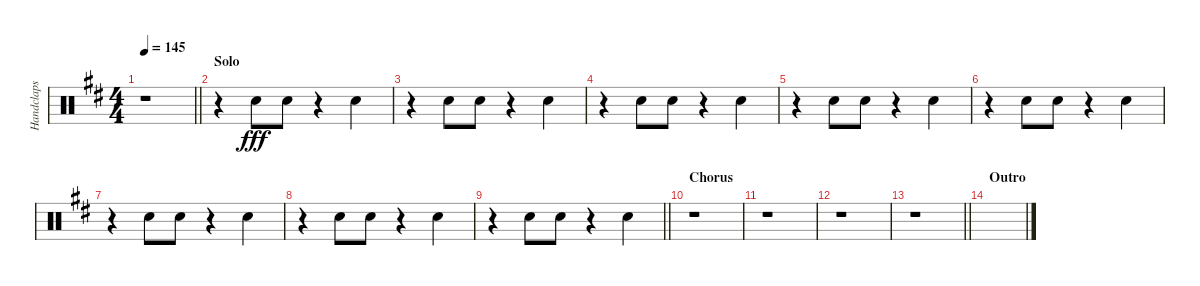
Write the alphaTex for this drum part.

\track ("Handclaps" "Handclaps") {instrument percussion}
\staff {score}
\articulation defaults
\ts (4 4)
\tempo 145
\clef neutral
\barLineRight lightlight
\ks d
r.1{dy fff} |
\section ("" "Solo")
r.4 "Hand Clap (hit)".8 "Hand Clap (hit)".8 r.4 "Hand Clap (hit)".4 |
r.4 "Hand Clap (hit)".8 "Hand Clap (hit)".8 r.4 "Hand Clap (hit)".4 |
r.4 "Hand Clap (hit)".8 "Hand Clap (hit)".8 r.4 "Hand Clap (hit)".4 |
r.4 "Hand Clap (hit)".8 "Hand Clap (hit)".8 r.4 "Hand Clap (hit)".4 |
r.4 "Hand Clap (hit)".8 "Hand Clap (hit)".8 r.4 "Hand Clap (hit)".4 |
r.4 "Hand Clap (hit)".8 "Hand Clap (hit)".8 r.4 "Hand Clap (hit)".4 |
r.4 "Hand Clap (hit)".8 "Hand Clap (hit)".8 r.4 "Hand Clap (hit)".4 |
\barLineRight lightlight
r.4 "Hand Clap (hit)".8 "Hand Clap (hit)".8 r.4 "Hand Clap (hit)".4 |
\section ("" "Chorus")
r.1 |
r.1 |
r.1 |
\barLineRight lightlight
r.1 |
\section ("" "Outro")
